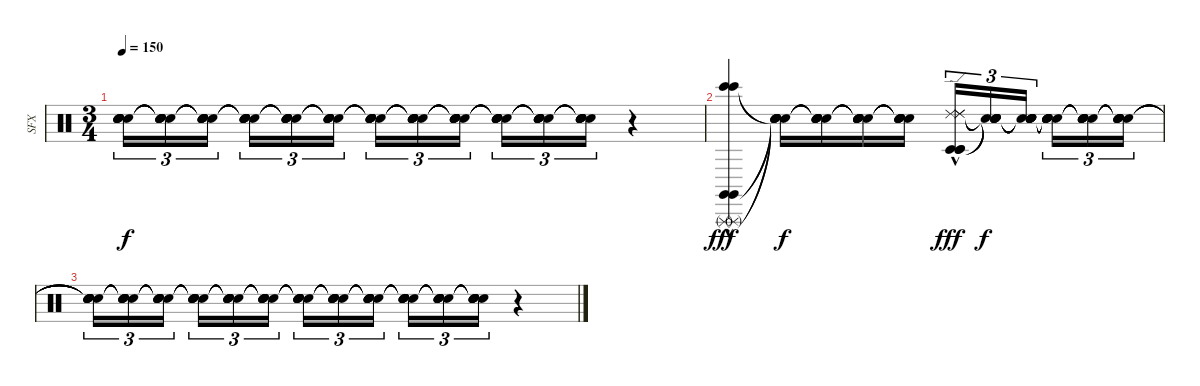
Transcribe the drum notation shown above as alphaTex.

\track ("SFX" "SFX") {instrument percussion}
\staff {score}
\articulation defaults
\ts (3 4)
\tempo 150
\clef neutral
\ks c
("Snare (hit)"{t} "Snare (hit)"{t} "Snare (hit)"{t} "Snare (hit)"{t} "Snare (hit)"{t} "Snare (hit)"{t}).16{tu (3 2) dy f balance 0} ("Snare (hit)"{t} "Snare (hit)"{t} "Snare (hit)"{t} "Snare (hit)"{t} "Snare (hit)"{t} "Snare (hit)"{t}).16{tu (3 2) balance 16} ("Snare (hit)"{t} "Snare (hit)"{t} "Snare (hit)"{t} "Snare (hit)"{t} "Snare (hit)"{t} "Snare (hit)"{t}).16{tu (3 2) balance 0 beam splitsecondary} ("Snare (hit)"{t} "Snare (hit)"{t} "Snare (hit)"{t} "Snare (hit)"{t} "Snare (hit)"{t} "Snare (hit)"{t}).16{tu (3 2) balance 16} ("Snare (hit)"{t} "Snare (hit)"{t} "Snare (hit)"{t} "Snare (hit)"{t} "Snare (hit)"{t} "Snare (hit)"{t}).16{tu (3 2) balance 0} ("Snare (hit)"{t} "Snare (hit)"{t} "Snare (hit)"{t} "Snare (hit)"{t} "Snare (hit)"{t} "Snare (hit)"{t}).16{tu (3 2) balance 16} ("Snare (hit)"{t} "Snare (hit)"{t} "Snare (hit)"{t} "Snare (hit)"{t} "Snare (hit)"{t} "Snare (hit)"{t}).16{tu (3 2) balance 0} ("Snare (hit)"{t} "Snare (hit)"{t} "Snare (hit)"{t} "Snare (hit)"{t} "Snare (hit)"{t} "Snare (hit)"{t}).16{tu (3 2) balance 16} ("Snare (hit)"{t} "Snare (hit)"{t} "Snare (hit)"{t} "Snare (hit)"{t} "Snare (hit)"{t} "Snare (hit)"{t}).16{tu (3 2) balance 0 beam splitsecondary} ("Snare (hit)"{t} "Snare (hit)"{t} "Snare (hit)"{t} "Snare (hit)"{t} "Snare (hit)"{t} "Snare (hit)"{t}).16{tu (3 2) balance 16} ("Snare (hit)"{t} "Snare (hit)"{t} "Snare (hit)"{t} "Snare (hit)"{t} "Snare (hit)"{t} "Snare (hit)"{t}).16{tu (3 2) balance 0} ("Snare (hit)"{t} "Snare (hit)"{t} "Snare (hit)"{t} "Snare (hit)"{t} "Snare (hit)"{t} "Snare (hit)"{t}).16{tu (3 2) balance 16} r.4 |
("Triangle (rnute)"{hac} "Bongo High (hit)"{hac} "Claves (hit)"{hac} "Bongo High (hit)"{hac} "Triangle (rnute)"{hac} "Claves (hit)"{hac}).4{dy fff volume 16 balance 16} ("Snare (hit)"{t} "Snare (hit)"{t} "Snare (hit)"{t} "Snare (hit)"{t} "Snare (hit)"{t} "Snare (hit)"{t}).16{dy f} ("Snare (hit)"{t} "Snare (hit)"{t} "Snare (hit)"{t} "Snare (hit)"{t} "Snare (hit)"{t} "Snare (hit)"{t}).16 ("Snare (hit)"{t} "Snare (hit)"{t} "Snare (hit)"{t} "Snare (hit)"{t} "Snare (hit)"{t} "Snare (hit)"{t}).16 ("Snare (hit)"{t} "Snare (hit)"{t} "Snare (hit)"{t} "Snare (hit)"{t} "Snare (hit)"{t} "Snare (hit)"{t}).16 ("Timbale low (hit)"{hac} "Timbale low (hit)"{hac} "Timbale low (hit)"{hac} "Ride (edge) 2"{hac} "Ride (edge) 2"{hac} "Ride (edge) 2"{hac}).16{tu (3 2) dy fff balance 16} ("Snare (hit)"{t} "Snare (hit)"{t} "Snare (hit)"{t} "Snare (hit)"{t} "Snare (hit)"{t} "Snare (hit)"{t}).16{tu (3 2) dy f balance 0} ("Snare (hit)"{t} "Snare (hit)"{t} "Snare (hit)"{t} "Snare (hit)"{t} "Snare (hit)"{t} "Snare (hit)"{t}).16{tu (3 2) balance 16 beam splitsecondary} ("Snare (hit)"{t} "Snare (hit)"{t} "Snare (hit)"{t} "Snare (hit)"{t} "Snare (hit)"{t} "Snare (hit)"{t}).16{tu (3 2) balance 0} ("Snare (hit)"{t} "Snare (hit)"{t} "Snare (hit)"{t} "Snare (hit)"{t} "Snare (hit)"{t} "Snare (hit)"{t}).16{tu (3 2) balance 16} ("Snare (hit)"{t} "Snare (hit)"{t} "Snare (hit)"{t} "Snare (hit)"{t} "Snare (hit)"{t} "Snare (hit)"{t}).16{tu (3 2) balance 0} |
("Snare (hit)"{t} "Snare (hit)"{t} "Snare (hit)"{t} "Snare (hit)"{t} "Snare (hit)"{t} "Snare (hit)"{t}).16{tu (3 2) balance 16} ("Snare (hit)"{t} "Snare (hit)"{t} "Snare (hit)"{t} "Snare (hit)"{t} "Snare (hit)"{t} "Snare (hit)"{t}).16{tu (3 2) balance 0} ("Snare (hit)"{t} "Snare (hit)"{t} "Snare (hit)"{t} "Snare (hit)"{t} "Snare (hit)"{t} "Snare (hit)"{t}).16{tu (3 2) balance 16 beam splitsecondary} ("Snare (hit)"{t} "Snare (hit)"{t} "Snare (hit)"{t} "Snare (hit)"{t} "Snare (hit)"{t} "Snare (hit)"{t}).16{tu (3 2) balance 0} ("Snare (hit)"{t} "Snare (hit)"{t} "Snare (hit)"{t} "Snare (hit)"{t} "Snare (hit)"{t} "Snare (hit)"{t}).16{tu (3 2) balance 16} ("Snare (hit)"{t} "Snare (hit)"{t} "Snare (hit)"{t} "Snare (hit)"{t} "Snare (hit)"{t} "Snare (hit)"{t}).16{tu (3 2) balance 0} ("Snare (hit)"{t} "Snare (hit)"{t} "Snare (hit)"{t} "Snare (hit)"{t} "Snare (hit)"{t} "Snare (hit)"{t}).16{tu (3 2) balance 16} ("Snare (hit)"{t} "Snare (hit)"{t} "Snare (hit)"{t} "Snare (hit)"{t} "Snare (hit)"{t} "Snare (hit)"{t}).16{tu (3 2) balance 0} ("Snare (hit)"{t} "Snare (hit)"{t} "Snare (hit)"{t} "Snare (hit)"{t} "Snare (hit)"{t} "Snare (hit)"{t}).16{tu (3 2) balance 16 beam splitsecondary} ("Snare (hit)"{t} "Snare (hit)"{t} "Snare (hit)"{t} "Snare (hit)"{t} "Snare (hit)"{t} "Snare (hit)"{t}).16{tu (3 2) balance 0} ("Snare (hit)"{t} "Snare (hit)"{t} "Snare (hit)"{t} "Snare (hit)"{t} "Snare (hit)"{t} "Snare (hit)"{t}).16{tu (3 2) balance 16} ("Snare (hit)"{t} "Snare (hit)"{t} "Snare (hit)"{t} "Snare (hit)"{t} "Snare (hit)"{t} "Snare (hit)"{t}).16{tu (3 2) balance 0} r.4
